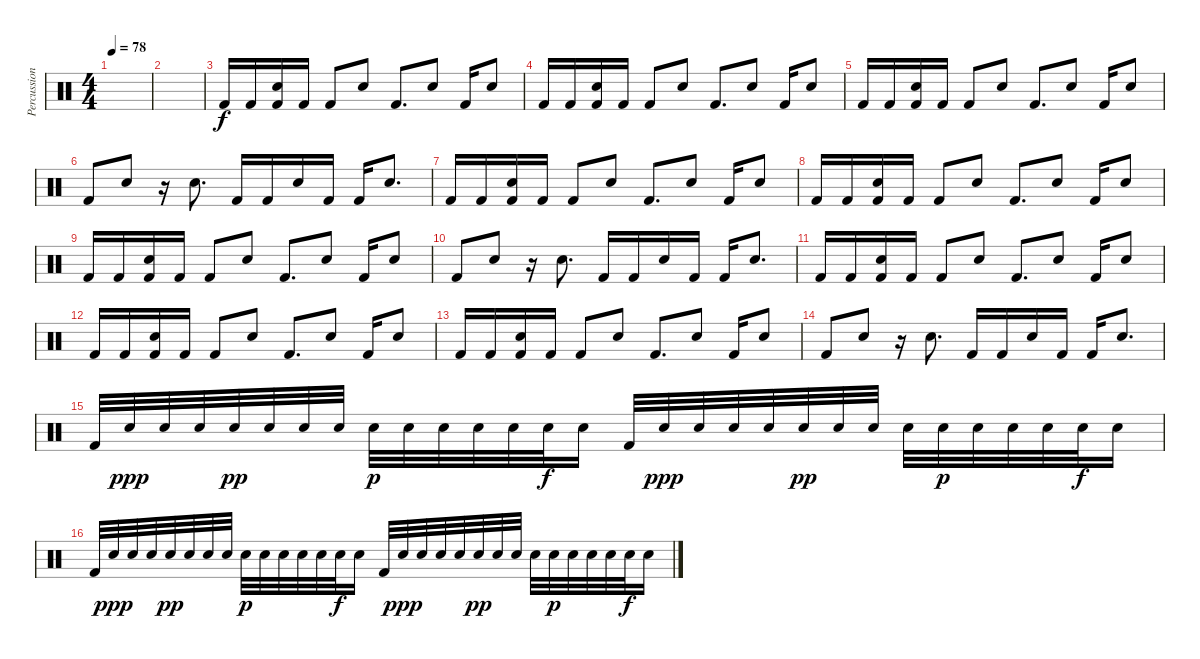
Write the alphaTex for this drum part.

\track ("Percussions" "Percussion") {instrument percussion}
\staff {score}
\articulation defaults
\ts (4 4)
\tempo 78
\clef neutral
\ks c
|
|
"Kick (hit) 2".16 "Kick (hit) 2".16 ("Snare (hit) 2" "Kick (hit) 2").16 "Kick (hit) 2".16 "Kick (hit) 2".8 "Snare (hit) 2".8 "Kick (hit) 2".8{d} "Snare (hit) 2".8 "Kick (hit) 2".16 "Snare (hit) 2".8 |
"Kick (hit) 2".16 "Kick (hit) 2".16 ("Snare (hit) 2" "Kick (hit) 2").16 "Kick (hit) 2".16 "Kick (hit) 2".8 "Snare (hit) 2".8 "Kick (hit) 2".8{d} "Snare (hit) 2".8 "Kick (hit) 2".16 "Snare (hit) 2".8 |
"Kick (hit) 2".16 "Kick (hit) 2".16 ("Snare (hit) 2" "Kick (hit) 2").16 "Kick (hit) 2".16 "Kick (hit) 2".8 "Snare (hit) 2".8 "Kick (hit) 2".8{d} "Snare (hit) 2".8 "Kick (hit) 2".16 "Snare (hit) 2".8 |
"Kick (hit) 2".8 "Snare (hit) 2".8 r.16 "Snare (hit) 2".8{d} "Kick (hit) 2".16 "Kick (hit) 2".16 "Snare (hit) 2".16 "Kick (hit) 2".16 "Kick (hit) 2".16 "Snare (hit) 2".8{d} |
"Kick (hit) 2".16 "Kick (hit) 2".16 ("Snare (hit) 2" "Kick (hit) 2").16 "Kick (hit) 2".16 "Kick (hit) 2".8 "Snare (hit) 2".8 "Kick (hit) 2".8{d} "Snare (hit) 2".8 "Kick (hit) 2".16 "Snare (hit) 2".8 |
"Kick (hit) 2".16 "Kick (hit) 2".16 ("Snare (hit) 2" "Kick (hit) 2").16 "Kick (hit) 2".16 "Kick (hit) 2".8 "Snare (hit) 2".8 "Kick (hit) 2".8{d} "Snare (hit) 2".8 "Kick (hit) 2".16 "Snare (hit) 2".8 |
"Kick (hit) 2".16 "Kick (hit) 2".16 ("Snare (hit) 2" "Kick (hit) 2").16 "Kick (hit) 2".16 "Kick (hit) 2".8 "Snare (hit) 2".8 "Kick (hit) 2".8{d} "Snare (hit) 2".8 "Kick (hit) 2".16 "Snare (hit) 2".8 |
"Kick (hit) 2".8 "Snare (hit) 2".8 r.16 "Snare (hit) 2".8{d} "Kick (hit) 2".16 "Kick (hit) 2".16 "Snare (hit) 2".16 "Kick (hit) 2".16 "Kick (hit) 2".16 "Snare (hit) 2".8{d} |
"Kick (hit) 2".16 "Kick (hit) 2".16 ("Snare (hit) 2" "Kick (hit) 2").16 "Kick (hit) 2".16 "Kick (hit) 2".8 "Snare (hit) 2".8 "Kick (hit) 2".8{d} "Snare (hit) 2".8 "Kick (hit) 2".16 "Snare (hit) 2".8 |
"Kick (hit) 2".16 "Kick (hit) 2".16 ("Snare (hit) 2" "Kick (hit) 2").16 "Kick (hit) 2".16 "Kick (hit) 2".8 "Snare (hit) 2".8 "Kick (hit) 2".8{d} "Snare (hit) 2".8 "Kick (hit) 2".16 "Snare (hit) 2".8 |
"Kick (hit) 2".16 "Kick (hit) 2".16 ("Snare (hit) 2" "Kick (hit) 2").16 "Kick (hit) 2".16 "Kick (hit) 2".8 "Snare (hit) 2".8 "Kick (hit) 2".8{d} "Snare (hit) 2".8 "Kick (hit) 2".16 "Snare (hit) 2".8 |
"Kick (hit) 2".8 "Snare (hit) 2".8 r.16 "Snare (hit) 2".8{d} "Kick (hit) 2".16 "Kick (hit) 2".16 "Snare (hit) 2".16 "Kick (hit) 2".16 "Kick (hit) 2".16 "Snare (hit) 2".8{d} |
"Kick (hit) 2".32 "Snare (hit) 2".32{dy ppp} "Snare (hit) 2".32 "Snare (hit) 2".32 "Snare (hit) 2".32{dy pp} "Snare (hit) 2".32 "Snare (hit) 2".32 "Snare (hit) 2".32 "Snare (hit) 2".32{dy p} "Snare (hit) 2".32 "Snare (hit) 2".32 "Snare (hit) 2".32 "Snare (hit) 2".32 "Snare (hit) 2".32{dy f} "Snare (hit) 2".16 "Kick (hit) 2".32 "Snare (hit) 2".32{dy ppp} "Snare (hit) 2".32 "Snare (hit) 2".32 "Snare (hit) 2".32 "Snare (hit) 2".32{dy pp} "Snare (hit) 2".32 "Snare (hit) 2".32 "Snare (hit) 2".32 "Snare (hit) 2".32{dy p} "Snare (hit) 2".32 "Snare (hit) 2".32 "Snare (hit) 2".32 "Snare (hit) 2".32{dy f} "Snare (hit) 2".16 |
"Kick (hit) 2".32 "Snare (hit) 2".32{dy ppp} "Snare (hit) 2".32 "Snare (hit) 2".32 "Snare (hit) 2".32{dy pp} "Snare (hit) 2".32 "Snare (hit) 2".32 "Snare (hit) 2".32 "Snare (hit) 2".32{dy p} "Snare (hit) 2".32 "Snare (hit) 2".32 "Snare (hit) 2".32 "Snare (hit) 2".32 "Snare (hit) 2".32{dy f} "Snare (hit) 2".16 "Kick (hit) 2".32 "Snare (hit) 2".32{dy ppp} "Snare (hit) 2".32 "Snare (hit) 2".32 "Snare (hit) 2".32 "Snare (hit) 2".32{dy pp} "Snare (hit) 2".32 "Snare (hit) 2".32 "Snare (hit) 2".32 "Snare (hit) 2".32{dy p} "Snare (hit) 2".32 "Snare (hit) 2".32 "Snare (hit) 2".32 "Snare (hit) 2".32{dy f} "Snare (hit) 2".16
